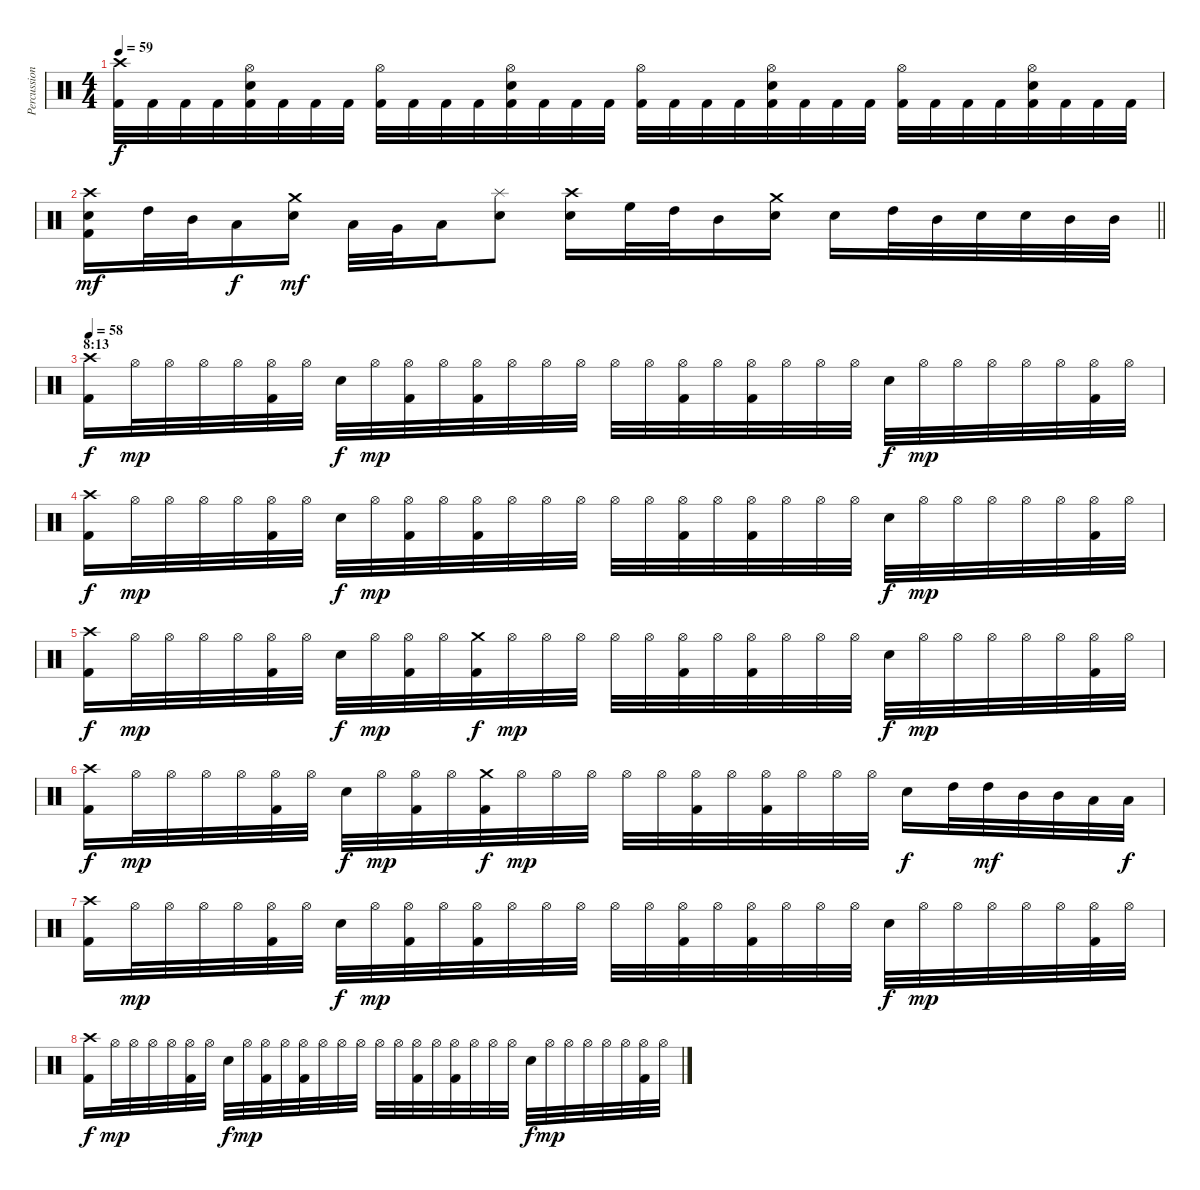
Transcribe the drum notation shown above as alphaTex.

\track ("Percussions" "Percussion") {instrument percussion}
\staff {score}
\articulation defaults
\ts (4 4)
\tempo 59
\clef neutral
\ks c
("Crash high (hit)" "Kick (hit) 2").32{dy f} "Kick (hit) 2".32 "Kick (hit) 2".32 "Kick (hit) 2".32 ("Hi-Hat (open)" "Snare (hit) 2" "Kick (hit) 2").32 "Kick (hit) 2".32 "Kick (hit) 2".32 "Kick (hit) 2".32 ("Hi-Hat (open)" "Kick (hit) 2").32 "Kick (hit) 2".32 "Kick (hit) 2".32 "Kick (hit) 2".32 ("Hi-Hat (open)" "Snare (hit) 2" "Kick (hit) 2").32 "Kick (hit) 2".32 "Kick (hit) 2".32 "Kick (hit) 2".32 ("Hi-Hat (open)" "Kick (hit) 2").32 "Kick (hit) 2".32 "Kick (hit) 2".32 "Kick (hit) 2".32 ("Hi-Hat (open)" "Snare (hit) 2" "Kick (hit) 2").32 "Kick (hit) 2".32 "Kick (hit) 2".32 "Kick (hit) 2".32 ("Hi-Hat (open)" "Kick (hit) 2").32 "Kick (hit) 2".32 "Kick (hit) 2".32 "Kick (hit) 2".32 ("Hi-Hat (open)" "Snare (hit) 2" "Kick (hit) 2").32 "Kick (hit) 2".32 "Kick (hit) 2".32 "Kick (hit) 2".32 |
\barLineRight lightlight
("Crash high (hit)" "Snare (hit) 2" "Kick (hit) 2").16{dy mf} "High Tom (hit)".32 "Mid Tom (hit)".32 "Low Tom (hit)".16{dy f} ("Crash medium (hit)" "Snare (hit) 2").16{dy mf} "Low Tom (hit)".32 "Very Low Tom (hit)".32 "Low Floor Tom (hit)".16 ("Splash (hit)" "Snare (hit) 2").8 ("Crash high (hit)" "Snare (hit) 2").16 "High Floor Tom (hit)".32 "High Tom (hit)".32 "Mid Tom (hit)".16 ("Crash medium (hit)" "Snare (hit) 2").16 "Snare (hit) 2".16 "High Tom (hit)".32 "Mid Tom (hit)".32 "Snare (hit) 2".32 "Snare (hit) 2".32 "Mid Tom (hit)".32 "Mid Tom (hit)".32 |
\section ("" "8:13")
\tempo 58
("Crash high (hit)" "Kick (hit) 2").16{dy f} "Hi-Hat (open)".32{dy mp} "Hi-Hat (open)".32 "Hi-Hat (open)".32 "Hi-Hat (open)".32 ("Hi-Hat (open)" "Kick (hit) 2").32 "Hi-Hat (open)".32 "Snare (hit) 2".32{dy f} "Hi-Hat (open)".32{dy mp} ("Hi-Hat (open)" "Kick (hit) 2").32 "Hi-Hat (open)".32 ("Hi-Hat (open)" "Kick (hit) 2").32 "Hi-Hat (open)".32 "Hi-Hat (open)".32 "Hi-Hat (open)".32 "Hi-Hat (open)".32 "Hi-Hat (open)".32 ("Hi-Hat (open)" "Kick (hit) 2").32 "Hi-Hat (open)".32 ("Hi-Hat (open)" "Kick (hit) 2").32 "Hi-Hat (open)".32 "Hi-Hat (open)".32 "Hi-Hat (open)".32 "Snare (hit) 2".32{dy f} "Hi-Hat (open)".32{dy mp} "Hi-Hat (open)".32 "Hi-Hat (open)".32 "Hi-Hat (open)".32 "Hi-Hat (open)".32 ("Hi-Hat (open)" "Kick (hit) 2").32 "Hi-Hat (open)".32 |
("Crash high (hit)" "Kick (hit) 2").16{dy f} "Hi-Hat (open)".32{dy mp} "Hi-Hat (open)".32 "Hi-Hat (open)".32 "Hi-Hat (open)".32 ("Hi-Hat (open)" "Kick (hit) 2").32 "Hi-Hat (open)".32 "Snare (hit) 2".32{dy f} "Hi-Hat (open)".32{dy mp} ("Hi-Hat (open)" "Kick (hit) 2").32 "Hi-Hat (open)".32 ("Hi-Hat (open)" "Kick (hit) 2").32 "Hi-Hat (open)".32 "Hi-Hat (open)".32 "Hi-Hat (open)".32 "Hi-Hat (open)".32 "Hi-Hat (open)".32 ("Hi-Hat (open)" "Kick (hit) 2").32 "Hi-Hat (open)".32 ("Hi-Hat (open)" "Kick (hit) 2").32 "Hi-Hat (open)".32 "Hi-Hat (open)".32 "Hi-Hat (open)".32 "Snare (hit) 2".32{dy f} "Hi-Hat (open)".32{dy mp} "Hi-Hat (open)".32 "Hi-Hat (open)".32 "Hi-Hat (open)".32 "Hi-Hat (open)".32 ("Hi-Hat (open)" "Kick (hit) 2").32 "Hi-Hat (open)".32 |
("Crash high (hit)" "Kick (hit) 2").16{dy f} "Hi-Hat (open)".32{dy mp} "Hi-Hat (open)".32 "Hi-Hat (open)".32 "Hi-Hat (open)".32 ("Hi-Hat (open)" "Kick (hit) 2").32 "Hi-Hat (open)".32 "Snare (hit) 2".32{dy f} "Hi-Hat (open)".32{dy mp} ("Hi-Hat (open)" "Kick (hit) 2").32 "Hi-Hat (open)".32 ("Crash medium (hit)" "Kick (hit) 2").32{dy f} "Hi-Hat (open)".32{dy mp} "Hi-Hat (open)".32 "Hi-Hat (open)".32 "Hi-Hat (open)".32 "Hi-Hat (open)".32 ("Hi-Hat (open)" "Kick (hit) 2").32 "Hi-Hat (open)".32 ("Hi-Hat (open)" "Kick (hit) 2").32 "Hi-Hat (open)".32 "Hi-Hat (open)".32 "Hi-Hat (open)".32 "Snare (hit) 2".32{dy f} "Hi-Hat (open)".32{dy mp} "Hi-Hat (open)".32 "Hi-Hat (open)".32 "Hi-Hat (open)".32 "Hi-Hat (open)".32 ("Hi-Hat (open)" "Kick (hit) 2").32 "Hi-Hat (open)".32 |
("Crash high (hit)" "Kick (hit) 2").16{dy f} "Hi-Hat (open)".32{dy mp} "Hi-Hat (open)".32 "Hi-Hat (open)".32 "Hi-Hat (open)".32 ("Hi-Hat (open)" "Kick (hit) 2").32 "Hi-Hat (open)".32 "Snare (hit) 2".32{dy f} "Hi-Hat (open)".32{dy mp} ("Hi-Hat (open)" "Kick (hit) 2").32 "Hi-Hat (open)".32 ("Crash medium (hit)" "Kick (hit) 2").32{dy f} "Hi-Hat (open)".32{dy mp} "Hi-Hat (open)".32 "Hi-Hat (open)".32 "Hi-Hat (open)".32 "Hi-Hat (open)".32 ("Hi-Hat (open)" "Kick (hit) 2").32 "Hi-Hat (open)".32 ("Hi-Hat (open)" "Kick (hit) 2").32 "Hi-Hat (open)".32 "Hi-Hat (open)".32 "Hi-Hat (open)".32 "Snare (hit) 2".16{dy f} "High Tom (hit)".32 "High Tom (hit)".32{dy mf} "Mid Tom (hit)".32 "Mid Tom (hit)".32 "Low Tom (hit)".32 "Low Tom (hit)".32{dy f} |
("Crash high (hit)" "Kick (hit) 2").16 "Hi-Hat (open)".32{dy mp} "Hi-Hat (open)".32 "Hi-Hat (open)".32 "Hi-Hat (open)".32 ("Hi-Hat (open)" "Kick (hit) 2").32 "Hi-Hat (open)".32 "Snare (hit) 2".32{dy f} "Hi-Hat (open)".32{dy mp} ("Hi-Hat (open)" "Kick (hit) 2").32 "Hi-Hat (open)".32 ("Hi-Hat (open)" "Kick (hit) 2").32 "Hi-Hat (open)".32 "Hi-Hat (open)".32 "Hi-Hat (open)".32 "Hi-Hat (open)".32 "Hi-Hat (open)".32 ("Hi-Hat (open)" "Kick (hit) 2").32 "Hi-Hat (open)".32 ("Hi-Hat (open)" "Kick (hit) 2").32 "Hi-Hat (open)".32 "Hi-Hat (open)".32 "Hi-Hat (open)".32 "Snare (hit) 2".32{dy f} "Hi-Hat (open)".32{dy mp} "Hi-Hat (open)".32 "Hi-Hat (open)".32 "Hi-Hat (open)".32 "Hi-Hat (open)".32 ("Hi-Hat (open)" "Kick (hit) 2").32 "Hi-Hat (open)".32 |
("Crash high (hit)" "Kick (hit) 2").16{dy f} "Hi-Hat (open)".32{dy mp} "Hi-Hat (open)".32 "Hi-Hat (open)".32 "Hi-Hat (open)".32 ("Hi-Hat (open)" "Kick (hit) 2").32 "Hi-Hat (open)".32 "Snare (hit) 2".32{dy f} "Hi-Hat (open)".32{dy mp} ("Hi-Hat (open)" "Kick (hit) 2").32 "Hi-Hat (open)".32 ("Hi-Hat (open)" "Kick (hit) 2").32 "Hi-Hat (open)".32 "Hi-Hat (open)".32 "Hi-Hat (open)".32 "Hi-Hat (open)".32 "Hi-Hat (open)".32 ("Hi-Hat (open)" "Kick (hit) 2").32 "Hi-Hat (open)".32 ("Hi-Hat (open)" "Kick (hit) 2").32 "Hi-Hat (open)".32 "Hi-Hat (open)".32 "Hi-Hat (open)".32 "Snare (hit) 2".32{dy f} "Hi-Hat (open)".32{dy mp} "Hi-Hat (open)".32 "Hi-Hat (open)".32 "Hi-Hat (open)".32 "Hi-Hat (open)".32 ("Hi-Hat (open)" "Kick (hit) 2").32 "Hi-Hat (open)".32
